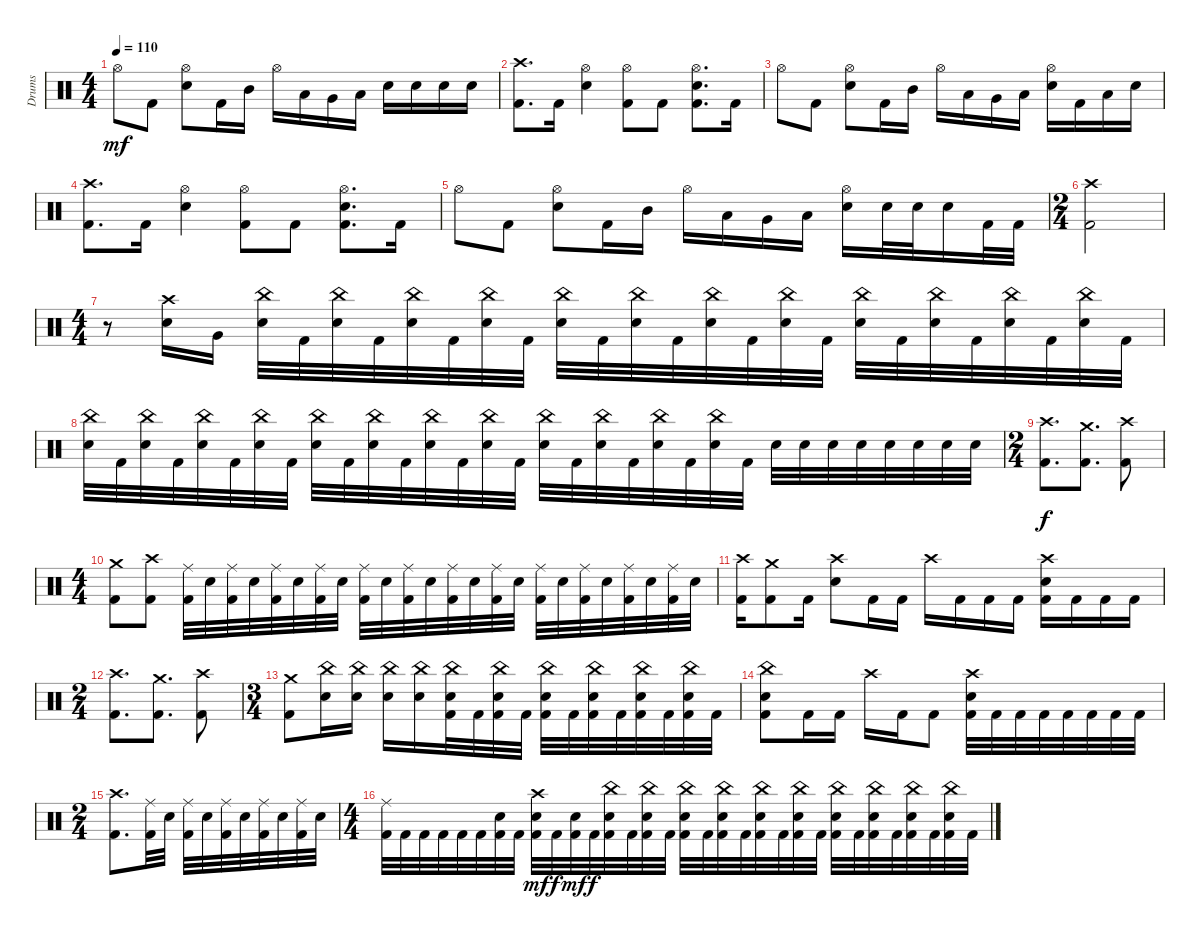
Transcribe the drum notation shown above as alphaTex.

\track ("Drums" "Drums") {instrument percussion}
\staff {score}
\articulation defaults
\ts (4 4)
\tempo 110
\clef neutral
\ks c "Hi-Hat (open)".8{dy mf} "Kick (hit) 2".8
("Hi-Hat (open)" "Electric Snare (hit)").8 "Kick (hit) 2".16 "Mid Tom (hit)".16 "Hi-Hat (open)".16 "Low Tom (hit)".16 "Very Low Tom (hit)".16 "Low Tom (hit)".16 "Electric Snare (hit)".16 "Electric Snare (hit)".16 "Electric Snare (hit)".16 "Electric Snare (hit)".16 |
("Crash high (hit)" "Kick (hit) 2").8{d} "Kick (hit) 2".16 ("Hi-Hat (open)" "Electric Snare (hit)").4 ("Hi-Hat (open)" "Kick (hit) 2").8 "Kick (hit) 2".8 ("Hi-Hat (open)" "Electric Snare (hit)" "Kick (hit) 2").8{d} "Kick (hit) 2".16 |
"Hi-Hat (open)".8 "Kick (hit) 2".8 ("Hi-Hat (open)" "Electric Snare (hit)").8 "Kick (hit) 2".16 "Mid Tom (hit)".16 "Hi-Hat (open)".16 "Low Tom (hit)".16 "Very Low Tom (hit)".16 "Low Tom (hit)".16 ("Hi-Hat (open)" "Electric Snare (hit)").16 "Kick (hit) 2".16 "Low Tom (hit)".16 "Electric Snare (hit)".16 |
("Crash high (hit)" "Kick (hit) 2").8{d} "Kick (hit) 2".16 ("Hi-Hat (open)" "Electric Snare (hit)").4 ("Hi-Hat (open)" "Kick (hit) 2").8 "Kick (hit) 2".8 ("Hi-Hat (open)" "Electric Snare (hit)" "Kick (hit) 2").8{d} "Kick (hit) 2".16 |
"Hi-Hat (open)".8 "Kick (hit) 2".8 ("Hi-Hat (open)" "Electric Snare (hit)").8 "Kick (hit) 2".16 "Mid Tom (hit)".16 "Hi-Hat (open)".16 "Low Tom (hit)".16 "Very Low Tom (hit)".16 "Low Tom (hit)".16 ("Hi-Hat (open)" "Electric Snare (hit)").16 "Electric Snare (hit)".32 "Electric Snare (hit)".32 "Electric Snare (hit)".16 "Kick (hit) 2".32 "Kick (hit) 2".32 |
\ts (2 4)
("Crash high (hit)" "Kick (hit) 2").2 |
\ts (4 4)
r.8 ("Crash high (hit)" "Electric Snare (hit)").16 "Very Low Tom (hit)".16 ("China (hit)" "Electric Snare (hit)").32 "Kick (hit) 2".32 ("China (hit)" "Electric Snare (hit)").32 "Kick (hit) 2".32 ("China (hit)" "Electric Snare (hit)").32 "Kick (hit) 2".32 ("China (hit)" "Electric Snare (hit)").32 "Kick (hit) 2".32 ("China (hit)" "Electric Snare (hit)").32 "Kick (hit) 2".32 ("China (hit)" "Electric Snare (hit)").32 "Kick (hit) 2".32 ("China (hit)" "Electric Snare (hit)").32 "Kick (hit) 2".32 ("China (hit)" "Electric Snare (hit)").32 "Kick (hit) 2".32 ("China (hit)" "Electric Snare (hit)").32 "Kick (hit) 2".32 ("China (hit)" "Electric Snare (hit)").32 "Kick (hit) 2".32 ("China (hit)" "Electric Snare (hit)").32 "Kick (hit) 2".32 ("China (hit)" "Electric Snare (hit)").32 "Kick (hit) 2".32 |
("China (hit)" "Electric Snare (hit)").32 "Kick (hit) 2".32 ("China (hit)" "Electric Snare (hit)").32 "Kick (hit) 2".32 ("China (hit)" "Electric Snare (hit)").32 "Kick (hit) 2".32 ("China (hit)" "Electric Snare (hit)").32 "Kick (hit) 2".32 ("China (hit)" "Electric Snare (hit)").32 "Kick (hit) 2".32 ("China (hit)" "Electric Snare (hit)").32 "Kick (hit) 2".32 ("China (hit)" "Electric Snare (hit)").32 "Kick (hit) 2".32 ("China (hit)" "Electric Snare (hit)").32 "Kick (hit) 2".32 ("China (hit)" "Electric Snare (hit)").32 "Kick (hit) 2".32 ("China (hit)" "Electric Snare (hit)").32 "Kick (hit) 2".32 ("China (hit)" "Electric Snare (hit)").32 "Kick (hit) 2".32 ("China (hit)" "Electric Snare (hit)").32 "Kick (hit) 2".32 "Electric Snare (hit)".32 "Electric Snare (hit)".32 "Electric Snare (hit)".32 "Electric Snare (hit)".32 "Electric Snare (hit)".32 "Electric Snare (hit)".32 "Electric Snare (hit)".32 "Electric Snare (hit)".32 |
\ts (2 4)
("Crash high (hit)" "Kick (hit) 2").8{d dy f} ("Crash medium (hit)" "Kick (hit) 2").8{d} ("Crash high (hit)" "Kick (hit) 2").8 |
\ts (4 4)
("Crash medium (hit)" "Kick (hit) 2").8 ("Crash high (hit)" "Kick (hit) 2").8 ("Ride (middle)" "Kick (hit) 2").32 "Electric Snare (hit)".32 ("Ride (middle)" "Kick (hit) 2").32 "Electric Snare (hit)".32 ("Ride (middle)" "Kick (hit) 2").32 "Electric Snare (hit)".32 ("Ride (middle)" "Kick (hit) 2").32 "Electric Snare (hit)".32 ("Ride (middle)" "Kick (hit) 2").32 "Electric Snare (hit)".32 ("Ride (middle)" "Kick (hit) 2").32 "Electric Snare (hit)".32 ("Ride (middle)" "Kick (hit) 2").32 "Electric Snare (hit)".32 ("Ride (middle)" "Kick (hit) 2").32 "Electric Snare (hit)".32 ("Ride (middle)" "Kick (hit) 2").32 "Electric Snare (hit)".32 ("Ride (middle)" "Kick (hit) 2").32 "Electric Snare (hit)".32 ("Ride (middle)" "Kick (hit) 2").32 "Electric Snare (hit)".32 ("Ride (middle)" "Kick (hit) 2").32 "Electric Snare (hit)".32 |
("Crash high (hit)" "Kick (hit) 2").16 ("Crash medium (hit)" "Kick (hit) 2").8 "Kick (hit) 2".16 ("Crash high (hit)" "Electric Snare (hit)").8 "Kick (hit) 2".16 "Kick (hit) 2".16 "Crash high (hit)".16 "Kick (hit) 2".16 "Kick (hit) 2".16 "Kick (hit) 2".16 ("Crash high (hit)" "Electric Snare (hit)" "Kick (hit) 2").16 "Kick (hit) 2".16 "Kick (hit) 2".16 "Kick (hit) 2".16 |
\ts (2 4)
("Crash high (hit)" "Kick (hit) 2").8{d} ("Crash medium (hit)" "Kick (hit) 2").8{d} ("Crash high (hit)" "Kick (hit) 2").8 |
\ts (3 4)
("Crash medium (hit)" "Kick (hit) 2").8 ("China (hit)" "Electric Snare (hit)").16 ("China (hit)" "Electric Snare (hit)").16 ("China (hit)" "Electric Snare (hit)").16 ("China (hit)" "Electric Snare (hit)").16 ("China (hit)" "Electric Snare (hit)" "Kick (hit) 2").32 "Kick (hit) 2".32 ("China (hit)" "Electric Snare (hit)" "Kick (hit) 2").32 "Kick (hit) 2".32 ("China (hit)" "Electric Snare (hit)" "Kick (hit) 2").32 "Kick (hit) 2".32 ("China (hit)" "Electric Snare (hit)" "Kick (hit) 2").32 "Kick (hit) 2".32 ("China (hit)" "Electric Snare (hit)" "Kick (hit) 2").32 "Kick (hit) 2".32 ("China (hit)" "Electric Snare (hit)" "Kick (hit) 2").32 "Kick (hit) 2".32 |
("China (hit)" "Electric Snare (hit)" "Kick (hit) 2").8 "Kick (hit) 2".16 "Kick (hit) 2".16 "Crash high (hit)".16 "Kick (hit) 2".16 "Kick (hit) 2".8 ("Crash high (hit)" "Electric Snare (hit)" "Kick (hit) 2").32 "Kick (hit) 2".32 "Kick (hit) 2".32 "Kick (hit) 2".32 "Kick (hit) 2".32 "Kick (hit) 2".32 "Kick (hit) 2".32 "Kick (hit) 2".32 |
\ts (2 4)
("Crash high (hit)" "Kick (hit) 2").8{d} ("Ride (middle)" "Kick (hit) 2").32 "Electric Snare (hit)".32 ("Ride (middle)" "Kick (hit) 2").32 "Electric Snare (hit)".32 ("Ride (middle)" "Kick (hit) 2").32 "Electric Snare (hit)".32 ("Ride (middle)" "Kick (hit) 2").32 "Electric Snare (hit)".32 ("Ride (middle)" "Kick (hit) 2").32 "Electric Snare (hit)".32 |
\ts (4 4)
("Ride (middle)" "Kick (hit) 2").32 "Kick (hit) 2".32 "Kick (hit) 2".32 "Kick (hit) 2".32 "Kick (hit) 2".32 "Kick (hit) 2".32 ("Electric Snare (hit)" "Kick (hit) 2").32 "Kick (hit) 2".32 ("Crash high (hit)" "Electric Snare (hit)" "Kick (hit) 2").32{dy mf} "Kick (hit) 2".32{dy f} ("Electric Snare (hit)" "Kick (hit) 2").32{dy mf} "Kick (hit) 2".32{dy f} ("China (hit)" "Electric Snare (hit)" "Kick (hit) 2").32 "Kick (hit) 2".32 ("China (hit)" "Electric Snare (hit)" "Kick (hit) 2").32 "Kick (hit) 2".32 ("China (hit)" "Electric Snare (hit)" "Kick (hit) 2").32 "Kick (hit) 2".32 ("China (hit)" "Electric Snare (hit)" "Kick (hit) 2").32 "Kick (hit) 2".32 ("China (hit)" "Electric Snare (hit)" "Kick (hit) 2").32 "Kick (hit) 2".32 ("China (hit)" "Electric Snare (hit)" "Kick (hit) 2").32 "Kick (hit) 2".32 ("China (hit)" "Electric Snare (hit)" "Kick (hit) 2").32 "Kick (hit) 2".32 ("China (hit)" "Electric Snare (hit)" "Kick (hit) 2").32 "Kick (hit) 2".32 ("China (hit)" "Electric Snare (hit)" "Kick (hit) 2").32 "Kick (hit) 2".32 ("China (hit)" "Electric Snare (hit)" "Kick (hit) 2").32 "Kick (hit) 2".32
